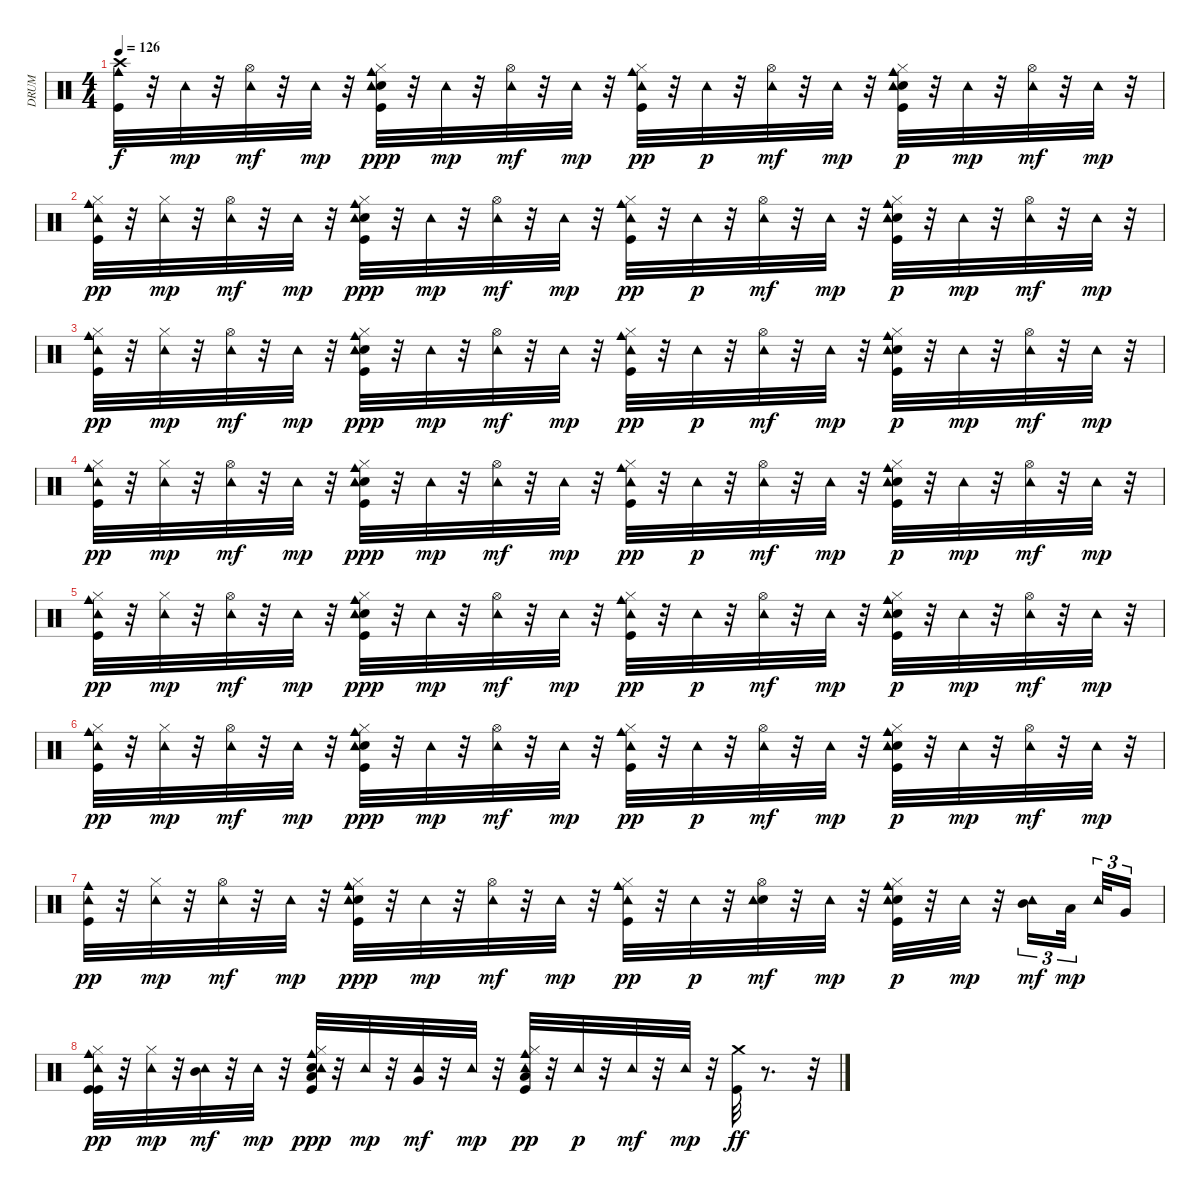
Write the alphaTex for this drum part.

\track ("DRUM" "DRUM") {instrument percussion}
\staff {score}
\articulation defaults
\ts (4 4)
\tempo 126
\clef neutral
\ks c
("Kick (hit)" "Crash high (hit)" "Cowbell medium (hit)").32{dy f} r.32 "Tambourine (hit)".32{dy mp} r.32 ("Hi-Hat (open)" "Tambourine (hit)").32{dy mf} r.32 "Tambourine (hit)".32{dy mp} r.32 ("Kick (hit)" "Electric Snare (hit)" "Hi-Hat (closed)" "Tambourine (hit)" "Cowbell medium (hit)").32{dy ppp} r.32 "Tambourine (hit)".32{dy mp} r.32 ("Hi-Hat (open)" "Tambourine (hit)").32{dy mf} r.32 "Tambourine (hit)".32{dy mp} r.32 ("Kick (hit)" "Hi-Hat (closed)" "Tambourine (hit)" "Cowbell medium (hit)").32{dy pp} r.32 "Tambourine (hit)".32{dy p} r.32 ("Hi-Hat (open)" "Tambourine (hit)").32{dy mf} r.32 "Tambourine (hit)".32{dy mp} r.32 ("Kick (hit)" "Electric Snare (hit)" "Hi-Hat (closed)" "Tambourine (hit)" "Cowbell medium (hit)").32{dy p} r.32 "Tambourine (hit)".32{dy mp} r.32 ("Hi-Hat (open)" "Tambourine (hit)").32{dy mf} r.32 "Tambourine (hit)".32{dy mp} r.32 |
("Kick (hit)" "Hi-Hat (closed)" "Tambourine (hit)" "Cowbell medium (hit)").32{dy pp} r.32 ("Hi-Hat (closed)" "Tambourine (hit)").32{dy mp} r.32 ("Hi-Hat (open)" "Tambourine (hit)").32{dy mf} r.32 "Tambourine (hit)".32{dy mp} r.32 ("Kick (hit)" "Electric Snare (hit)" "Hi-Hat (closed)" "Tambourine (hit)" "Cowbell medium (hit)").32{dy ppp} r.32 "Tambourine (hit)".32{dy mp} r.32 ("Hi-Hat (open)" "Tambourine (hit)").32{dy mf} r.32 "Tambourine (hit)".32{dy mp} r.32 ("Kick (hit)" "Hi-Hat (closed)" "Tambourine (hit)" "Cowbell medium (hit)").32{dy pp} r.32 "Tambourine (hit)".32{dy p} r.32 ("Hi-Hat (open)" "Tambourine (hit)").32{dy mf} r.32 "Tambourine (hit)".32{dy mp} r.32 ("Kick (hit)" "Electric Snare (hit)" "Hi-Hat (closed)" "Tambourine (hit)" "Cowbell medium (hit)").32{dy p} r.32 "Tambourine (hit)".32{dy mp} r.32 ("Hi-Hat (open)" "Tambourine (hit)").32{dy mf} r.32 "Tambourine (hit)".32{dy mp} r.32 |
("Kick (hit)" "Hi-Hat (closed)" "Tambourine (hit)" "Cowbell medium (hit)").32{dy pp} r.32 ("Hi-Hat (closed)" "Tambourine (hit)").32{dy mp} r.32 ("Hi-Hat (open)" "Tambourine (hit)").32{dy mf} r.32 "Tambourine (hit)".32{dy mp} r.32 ("Kick (hit)" "Electric Snare (hit)" "Hi-Hat (closed)" "Tambourine (hit)" "Cowbell medium (hit)").32{dy ppp} r.32 "Tambourine (hit)".32{dy mp} r.32 ("Hi-Hat (open)" "Tambourine (hit)").32{dy mf} r.32 "Tambourine (hit)".32{dy mp} r.32 ("Kick (hit)" "Hi-Hat (closed)" "Tambourine (hit)" "Cowbell medium (hit)").32{dy pp} r.32 "Tambourine (hit)".32{dy p} r.32 ("Hi-Hat (open)" "Tambourine (hit)").32{dy mf} r.32 "Tambourine (hit)".32{dy mp} r.32 ("Kick (hit)" "Electric Snare (hit)" "Hi-Hat (closed)" "Tambourine (hit)" "Cowbell medium (hit)").32{dy p} r.32 "Tambourine (hit)".32{dy mp} r.32 ("Hi-Hat (open)" "Tambourine (hit)").32{dy mf} r.32 "Tambourine (hit)".32{dy mp} r.32 |
("Kick (hit)" "Hi-Hat (closed)" "Tambourine (hit)" "Cowbell medium (hit)").32{dy pp} r.32 ("Hi-Hat (closed)" "Tambourine (hit)").32{dy mp} r.32 ("Hi-Hat (open)" "Tambourine (hit)").32{dy mf} r.32 "Tambourine (hit)".32{dy mp} r.32 ("Kick (hit)" "Electric Snare (hit)" "Hi-Hat (closed)" "Tambourine (hit)" "Cowbell medium (hit)").32{dy ppp} r.32 "Tambourine (hit)".32{dy mp} r.32 ("Hi-Hat (open)" "Tambourine (hit)").32{dy mf} r.32 "Tambourine (hit)".32{dy mp} r.32 ("Kick (hit)" "Hi-Hat (closed)" "Tambourine (hit)" "Cowbell medium (hit)").32{dy pp} r.32 "Tambourine (hit)".32{dy p} r.32 ("Hi-Hat (open)" "Tambourine (hit)").32{dy mf} r.32 "Tambourine (hit)".32{dy mp} r.32 ("Kick (hit)" "Electric Snare (hit)" "Hi-Hat (closed)" "Tambourine (hit)" "Cowbell medium (hit)").32{dy p} r.32 "Tambourine (hit)".32{dy mp} r.32 ("Hi-Hat (open)" "Tambourine (hit)").32{dy mf} r.32 "Tambourine (hit)".32{dy mp} r.32 |
("Kick (hit)" "Hi-Hat (closed)" "Tambourine (hit)" "Cowbell medium (hit)").32{dy pp} r.32 ("Hi-Hat (closed)" "Tambourine (hit)").32{dy mp} r.32 ("Hi-Hat (open)" "Tambourine (hit)").32{dy mf} r.32 "Tambourine (hit)".32{dy mp} r.32 ("Kick (hit)" "Electric Snare (hit)" "Hi-Hat (closed)" "Tambourine (hit)" "Cowbell medium (hit)").32{dy ppp} r.32 "Tambourine (hit)".32{dy mp} r.32 ("Hi-Hat (open)" "Tambourine (hit)").32{dy mf} r.32 "Tambourine (hit)".32{dy mp} r.32 ("Kick (hit)" "Hi-Hat (closed)" "Tambourine (hit)" "Cowbell medium (hit)").32{dy pp} r.32 "Tambourine (hit)".32{dy p} r.32 ("Hi-Hat (open)" "Tambourine (hit)").32{dy mf} r.32 "Tambourine (hit)".32{dy mp} r.32 ("Kick (hit)" "Electric Snare (hit)" "Hi-Hat (closed)" "Tambourine (hit)" "Cowbell medium (hit)").32{dy p} r.32 "Tambourine (hit)".32{dy mp} r.32 ("Hi-Hat (open)" "Tambourine (hit)").32{dy mf} r.32 "Tambourine (hit)".32{dy mp} r.32 |
("Kick (hit)" "Hi-Hat (closed)" "Tambourine (hit)" "Cowbell medium (hit)").32{dy pp} r.32 ("Hi-Hat (closed)" "Tambourine (hit)").32{dy mp} r.32 ("Hi-Hat (open)" "Tambourine (hit)").32{dy mf} r.32 "Tambourine (hit)".32{dy mp} r.32 ("Kick (hit)" "Electric Snare (hit)" "Hi-Hat (closed)" "Tambourine (hit)" "Cowbell medium (hit)").32{dy ppp} r.32 "Tambourine (hit)".32{dy mp} r.32 ("Hi-Hat (open)" "Tambourine (hit)").32{dy mf} r.32 "Tambourine (hit)".32{dy mp} r.32 ("Kick (hit)" "Hi-Hat (closed)" "Tambourine (hit)" "Cowbell medium (hit)").32{dy pp} r.32 "Tambourine (hit)".32{dy p} r.32 ("Hi-Hat (open)" "Tambourine (hit)").32{dy mf} r.32 "Tambourine (hit)".32{dy mp} r.32 ("Kick (hit)" "Electric Snare (hit)" "Hi-Hat (closed)" "Tambourine (hit)" "Cowbell medium (hit)").32{dy p} r.32 "Tambourine (hit)".32{dy mp} r.32 ("Hi-Hat (open)" "Tambourine (hit)").32{dy mf} r.32 "Tambourine (hit)".32{dy mp} r.32 |
("Kick (hit)" "Tambourine (hit)" "Cowbell medium (hit)").32{dy pp} r.32 ("Hi-Hat (closed)" "Tambourine (hit)").32{dy mp} r.32 ("Hi-Hat (open)" "Tambourine (hit)").32{dy mf} r.32 "Tambourine (hit)".32{dy mp} r.32 ("Kick (hit)" "Electric Snare (hit)" "Hi-Hat (closed)" "Tambourine (hit)" "Cowbell medium (hit)").32{dy ppp} r.32 "Tambourine (hit)".32{dy mp} r.32 ("Hi-Hat (open)" "Tambourine (hit)").32{dy mf} r.32 "Tambourine (hit)".32{dy mp} r.32 ("Kick (hit)" "Hi-Hat (closed)" "Tambourine (hit)" "Cowbell medium (hit)").32{dy pp} r.32 "Tambourine (hit)".32{dy p} r.32 ("Electric Snare (hit)" "Hi-Hat (open)" "Tambourine (hit)").32{dy mf} r.32 "Tambourine (hit)".32{dy mp} r.32 ("Kick (hit)" "Electric Snare (hit)" "Hi-Hat (closed)" "Tambourine (hit)" "Cowbell medium (hit)").32{dy p} r.32 "Tambourine (hit)".32{dy mp} r.32 ("Mid Tom (hit)" "Tambourine (hit)").16{tu (3 2) dy mf} "Low Tom (hit)".32{tu (3 2) dy mp} "Tambourine (hit)".32{tu (3 2)} "Very Low Tom (hit)".16{tu (3 2)} |
("Kick (hit)" "Kick (hit)" "Hi-Hat (closed)" "Tambourine (hit)" "Cowbell medium (hit)").32{dy pp} r.32 ("Hi-Hat (closed)" "Tambourine (hit)").32{dy mp} r.32 ("Mid Tom (hit)" "Tambourine (hit)").32{dy mf} r.32 "Tambourine (hit)".32{dy mp} r.32 ("Kick (hit)" "Electric Snare (hit)" "Hi-Hat (closed)" "Low Tom (hit)" "Tambourine (hit)" "Cowbell medium (hit)").32{dy ppp} r.32 "Tambourine (hit)".32{dy mp} r.32 ("Very Low Tom (hit)" "Tambourine (hit)").32{dy mf} r.32 "Tambourine (hit)".32{dy mp} r.32 ("Kick (hit)" "Low Floor Tom (hit)" "Hi-Hat (closed)" "Tambourine (hit)" "Cowbell medium (hit)").32{dy pp} r.32 "Tambourine (hit)".32{dy p} r.32 "Tambourine (hit)".32{dy mf} r.32 "Tambourine (hit)".32{dy mp} r.32 ("Kick (hit)" "Crash medium (hit)").32{dy ff} r.8{d} r.32
